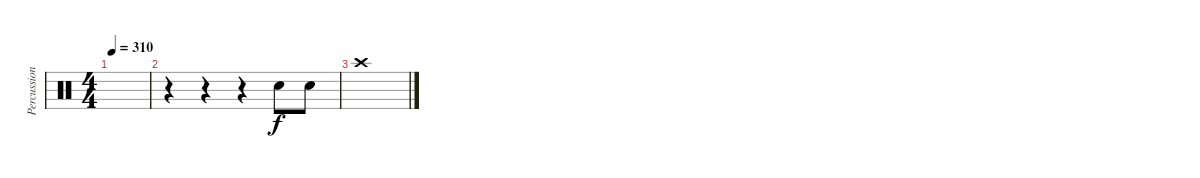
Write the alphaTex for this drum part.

\track ("Percussion" "Percussion") {instrument percussion}
\staff {score}
\articulation defaults
\ts (4 4)
\tempo 310
\clef neutral
\ks c
|
r.4 r.4 r.4 "Electric Snare (hit)".8 "Electric Snare (hit)".8 |
"Crash high (hit)".1
